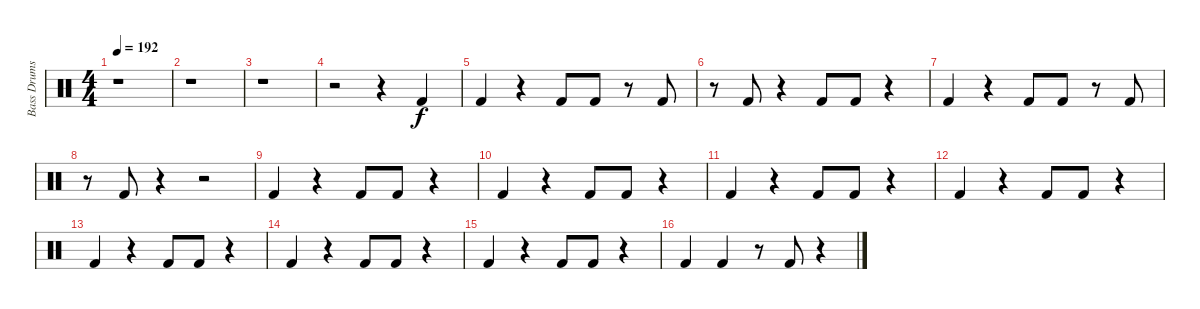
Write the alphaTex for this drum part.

\track ("Bass Drums" "Bass Drums") {instrument percussion}
\staff {score}
\articulation defaults
\ts (4 4)
\tempo 192
\clef neutral
\ks c
r.1{dy f} |
r.1 |
r.1 |
r.2 r.4 "Kick (hit) 2".4 |
"Kick (hit) 2".4 r.4 "Kick (hit) 2".8 "Kick (hit) 2".8 r.8 "Kick (hit) 2".8 |
r.8 "Kick (hit) 2".8 r.4 "Kick (hit) 2".8 "Kick (hit) 2".8 r.4 |
"Kick (hit) 2".4 r.4 "Kick (hit) 2".8 "Kick (hit) 2".8 r.8 "Kick (hit) 2".8 |
r.8 "Kick (hit) 2".8 r.4 r.2 |
"Kick (hit) 2".4 r.4 "Kick (hit) 2".8 "Kick (hit) 2".8 r.4 |
"Kick (hit) 2".4 r.4 "Kick (hit) 2".8 "Kick (hit) 2".8 r.4 |
"Kick (hit) 2".4 r.4 "Kick (hit) 2".8 "Kick (hit) 2".8 r.4 |
"Kick (hit) 2".4 r.4 "Kick (hit) 2".8 "Kick (hit) 2".8 r.4 |
"Kick (hit) 2".4 r.4 "Kick (hit) 2".8 "Kick (hit) 2".8 r.4 |
"Kick (hit) 2".4 r.4 "Kick (hit) 2".8 "Kick (hit) 2".8 r.4 |
"Kick (hit) 2".4 r.4 "Kick (hit) 2".8 "Kick (hit) 2".8 r.4 |
"Kick (hit) 2".4 "Kick (hit) 2".4 r.8 "Kick (hit) 2".8 r.4
